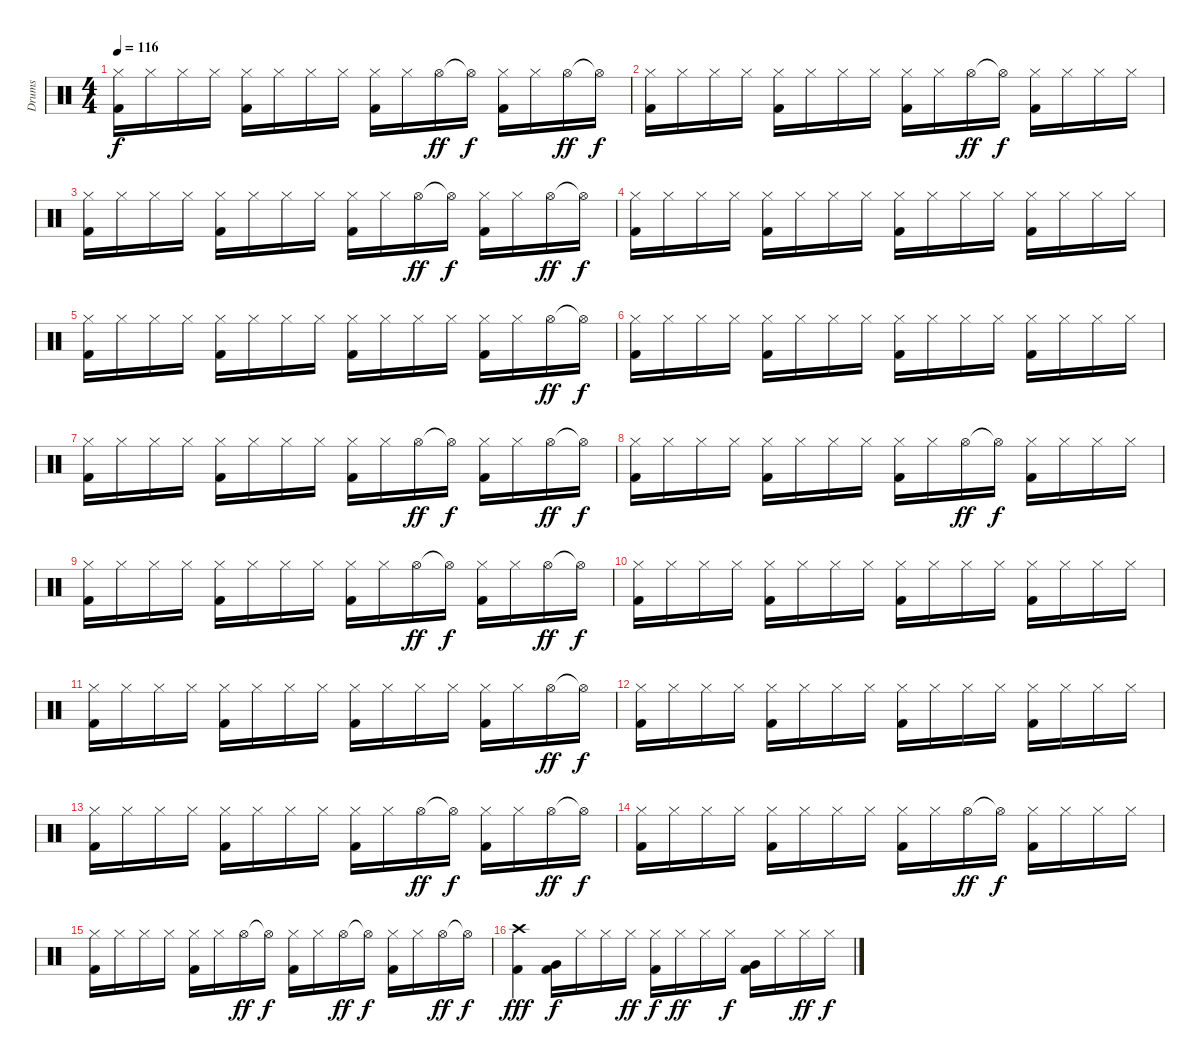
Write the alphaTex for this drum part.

\track ("Drums" "Drums") {instrument percussion}
\staff {score}
\articulation defaults
\ts (4 4)
\tempo 116
\clef neutral
\ks c
("Hi-Hat (closed)" "Kick (hit) 2").16{dy f} "Hi-Hat (closed)".16 "Hi-Hat (closed)".16 "Hi-Hat (closed)".16 ("Hi-Hat (closed)" "Kick (hit) 2").16 "Hi-Hat (closed)".16 "Hi-Hat (closed)".16 "Hi-Hat (closed)".16 ("Hi-Hat (closed)" "Kick (hit) 2").16 "Hi-Hat (closed)".16 "Hi-Hat (open)".16{dy ff} "Hi-Hat (open)"{t}.16{dy f} ("Hi-Hat (closed)" "Kick (hit) 2").16 "Hi-Hat (closed)".16 "Hi-Hat (open)".16{dy ff} "Hi-Hat (open)"{t}.16{dy f} |
("Hi-Hat (closed)" "Kick (hit) 2").16 "Hi-Hat (closed)".16 "Hi-Hat (closed)".16 "Hi-Hat (closed)".16 ("Hi-Hat (closed)" "Kick (hit) 2").16 "Hi-Hat (closed)".16 "Hi-Hat (closed)".16 "Hi-Hat (closed)".16 ("Hi-Hat (closed)" "Kick (hit) 2").16 "Hi-Hat (closed)".16 "Hi-Hat (open)".16{dy ff} "Hi-Hat (open)"{t}.16{dy f} ("Hi-Hat (closed)" "Kick (hit) 2").16 "Hi-Hat (closed)".16 "Hi-Hat (closed)".16 "Hi-Hat (closed)".16 |
("Hi-Hat (closed)" "Kick (hit) 2").16 "Hi-Hat (closed)".16 "Hi-Hat (closed)".16 "Hi-Hat (closed)".16 ("Hi-Hat (closed)" "Kick (hit) 2").16 "Hi-Hat (closed)".16 "Hi-Hat (closed)".16 "Hi-Hat (closed)".16 ("Hi-Hat (closed)" "Kick (hit) 2").16 "Hi-Hat (closed)".16 "Hi-Hat (open)".16{dy ff} "Hi-Hat (open)"{t}.16{dy f} ("Hi-Hat (closed)" "Kick (hit) 2").16 "Hi-Hat (closed)".16 "Hi-Hat (open)".16{dy ff} "Hi-Hat (open)"{t}.16{dy f} |
("Hi-Hat (closed)" "Kick (hit) 2").16 "Hi-Hat (closed)".16 "Hi-Hat (closed)".16 "Hi-Hat (closed)".16 ("Hi-Hat (closed)" "Kick (hit) 2").16 "Hi-Hat (closed)".16 "Hi-Hat (closed)".16 "Hi-Hat (closed)".16 ("Hi-Hat (closed)" "Kick (hit) 2").16 "Hi-Hat (closed)".16 "Hi-Hat (closed)".16 "Hi-Hat (closed)".16 ("Hi-Hat (closed)" "Kick (hit) 2").16 "Hi-Hat (closed)".16 "Hi-Hat (closed)".16 "Hi-Hat (closed)".16 |
("Hi-Hat (closed)" "Kick (hit) 2").16 "Hi-Hat (closed)".16 "Hi-Hat (closed)".16 "Hi-Hat (closed)".16 ("Hi-Hat (closed)" "Kick (hit) 2").16 "Hi-Hat (closed)".16 "Hi-Hat (closed)".16 "Hi-Hat (closed)".16 ("Hi-Hat (closed)" "Kick (hit) 2").16 "Hi-Hat (closed)".16 "Hi-Hat (closed)".16 "Hi-Hat (closed)".16 ("Hi-Hat (closed)" "Kick (hit) 2").16 "Hi-Hat (closed)".16 "Hi-Hat (open)".16{dy ff} "Hi-Hat (open)"{t}.16{dy f} |
("Hi-Hat (closed)" "Kick (hit) 2").16 "Hi-Hat (closed)".16 "Hi-Hat (closed)".16 "Hi-Hat (closed)".16 ("Hi-Hat (closed)" "Kick (hit) 2").16 "Hi-Hat (closed)".16 "Hi-Hat (closed)".16 "Hi-Hat (closed)".16 ("Hi-Hat (closed)" "Kick (hit) 2").16 "Hi-Hat (closed)".16 "Hi-Hat (closed)".16 "Hi-Hat (closed)".16 ("Hi-Hat (closed)" "Kick (hit) 2").16 "Hi-Hat (closed)".16 "Hi-Hat (closed)".16 "Hi-Hat (closed)".16 |
("Hi-Hat (closed)" "Kick (hit) 2").16 "Hi-Hat (closed)".16 "Hi-Hat (closed)".16 "Hi-Hat (closed)".16 ("Hi-Hat (closed)" "Kick (hit) 2").16 "Hi-Hat (closed)".16 "Hi-Hat (closed)".16 "Hi-Hat (closed)".16 ("Hi-Hat (closed)" "Kick (hit) 2").16 "Hi-Hat (closed)".16 "Hi-Hat (open)".16{dy ff} "Hi-Hat (open)"{t}.16{dy f} ("Hi-Hat (closed)" "Kick (hit) 2").16 "Hi-Hat (closed)".16 "Hi-Hat (open)".16{dy ff} "Hi-Hat (open)"{t}.16{dy f} |
("Hi-Hat (closed)" "Kick (hit) 2").16 "Hi-Hat (closed)".16 "Hi-Hat (closed)".16 "Hi-Hat (closed)".16 ("Hi-Hat (closed)" "Kick (hit) 2").16 "Hi-Hat (closed)".16 "Hi-Hat (closed)".16 "Hi-Hat (closed)".16 ("Hi-Hat (closed)" "Kick (hit) 2").16 "Hi-Hat (closed)".16 "Hi-Hat (open)".16{dy ff} "Hi-Hat (open)"{t}.16{dy f} ("Hi-Hat (closed)" "Kick (hit) 2").16 "Hi-Hat (closed)".16 "Hi-Hat (closed)".16 "Hi-Hat (closed)".16 |
("Hi-Hat (closed)" "Kick (hit) 2").16 "Hi-Hat (closed)".16 "Hi-Hat (closed)".16 "Hi-Hat (closed)".16 ("Hi-Hat (closed)" "Kick (hit) 2").16 "Hi-Hat (closed)".16 "Hi-Hat (closed)".16 "Hi-Hat (closed)".16 ("Hi-Hat (closed)" "Kick (hit) 2").16 "Hi-Hat (closed)".16 "Hi-Hat (open)".16{dy ff} "Hi-Hat (open)"{t}.16{dy f} ("Hi-Hat (closed)" "Kick (hit) 2").16 "Hi-Hat (closed)".16 "Hi-Hat (open)".16{dy ff} "Hi-Hat (open)"{t}.16{dy f} |
("Hi-Hat (closed)" "Kick (hit) 2").16 "Hi-Hat (closed)".16 "Hi-Hat (closed)".16 "Hi-Hat (closed)".16 ("Hi-Hat (closed)" "Kick (hit) 2").16 "Hi-Hat (closed)".16 "Hi-Hat (closed)".16 "Hi-Hat (closed)".16 ("Hi-Hat (closed)" "Kick (hit) 2").16 "Hi-Hat (closed)".16 "Hi-Hat (closed)".16 "Hi-Hat (closed)".16 ("Hi-Hat (closed)" "Kick (hit) 2").16 "Hi-Hat (closed)".16 "Hi-Hat (closed)".16 "Hi-Hat (closed)".16 |
("Hi-Hat (closed)" "Kick (hit) 2").16 "Hi-Hat (closed)".16 "Hi-Hat (closed)".16 "Hi-Hat (closed)".16 ("Hi-Hat (closed)" "Kick (hit) 2").16 "Hi-Hat (closed)".16 "Hi-Hat (closed)".16 "Hi-Hat (closed)".16 ("Hi-Hat (closed)" "Kick (hit) 2").16 "Hi-Hat (closed)".16 "Hi-Hat (closed)".16 "Hi-Hat (closed)".16 ("Hi-Hat (closed)" "Kick (hit) 2").16 "Hi-Hat (closed)".16 "Hi-Hat (open)".16{dy ff} "Hi-Hat (open)"{t}.16{dy f} |
("Hi-Hat (closed)" "Kick (hit) 2").16 "Hi-Hat (closed)".16 "Hi-Hat (closed)".16 "Hi-Hat (closed)".16 ("Hi-Hat (closed)" "Kick (hit) 2").16 "Hi-Hat (closed)".16 "Hi-Hat (closed)".16 "Hi-Hat (closed)".16 ("Hi-Hat (closed)" "Kick (hit) 2").16 "Hi-Hat (closed)".16 "Hi-Hat (closed)".16 "Hi-Hat (closed)".16 ("Hi-Hat (closed)" "Kick (hit) 2").16 "Hi-Hat (closed)".16 "Hi-Hat (closed)".16 "Hi-Hat (closed)".16 |
("Hi-Hat (closed)" "Kick (hit) 2").16 "Hi-Hat (closed)".16 "Hi-Hat (closed)".16 "Hi-Hat (closed)".16 ("Hi-Hat (closed)" "Kick (hit) 2").16 "Hi-Hat (closed)".16 "Hi-Hat (closed)".16 "Hi-Hat (closed)".16 ("Hi-Hat (closed)" "Kick (hit) 2").16 "Hi-Hat (closed)".16 "Hi-Hat (open)".16{dy ff} "Hi-Hat (open)"{t}.16{dy f} ("Hi-Hat (closed)" "Kick (hit) 2").16 "Hi-Hat (closed)".16 "Hi-Hat (open)".16{dy ff} "Hi-Hat (open)"{t}.16{dy f} |
("Hi-Hat (closed)" "Kick (hit) 2").16 "Hi-Hat (closed)".16 "Hi-Hat (closed)".16 "Hi-Hat (closed)".16 ("Hi-Hat (closed)" "Kick (hit) 2").16 "Hi-Hat (closed)".16 "Hi-Hat (closed)".16 "Hi-Hat (closed)".16 ("Hi-Hat (closed)" "Kick (hit) 2").16 "Hi-Hat (closed)".16 "Hi-Hat (open)".16{dy ff} "Hi-Hat (open)"{t}.16{dy f} ("Hi-Hat (closed)" "Kick (hit) 2").16 "Hi-Hat (closed)".16 "Hi-Hat (closed)".16 "Hi-Hat (closed)".16 |
("Hi-Hat (closed)" "Kick (hit) 2").16 "Hi-Hat (closed)".16 "Hi-Hat (closed)".16 "Hi-Hat (closed)".16 ("Hi-Hat (closed)" "Kick (hit) 2").16 "Hi-Hat (closed)".16 "Hi-Hat (open)".16{dy ff} "Hi-Hat (open)"{t}.16{dy f} ("Hi-Hat (closed)" "Kick (hit) 2").16 "Hi-Hat (closed)".16 "Hi-Hat (open)".16{dy ff} "Hi-Hat (open)"{t}.16{dy f} ("Hi-Hat (closed)" "Kick (hit) 2").16 "Hi-Hat (closed)".16 "Hi-Hat (open)".16{dy ff} "Hi-Hat (open)"{t}.16{dy f} |
("Crash high (hit)" "Kick (hit) 2").4{dy fff} ("Very Low Tom (hit)" "Kick (hit) 2").16{dy f} "Hi-Hat (closed)".16 "Hi-Hat (closed)".16 "Hi-Hat (closed)".16{dy ff} ("Hi-Hat (closed)" "Kick (hit) 2").16{dy f} "Hi-Hat (closed)".16{dy ff} "Hi-Hat (closed)".16 "Hi-Hat (closed)".16{dy f} ("Very Low Tom (hit)" "Kick (hit) 2").16 "Hi-Hat (closed)".16 "Hi-Hat (closed)".16{dy ff} "Hi-Hat (closed)".16{dy f}
